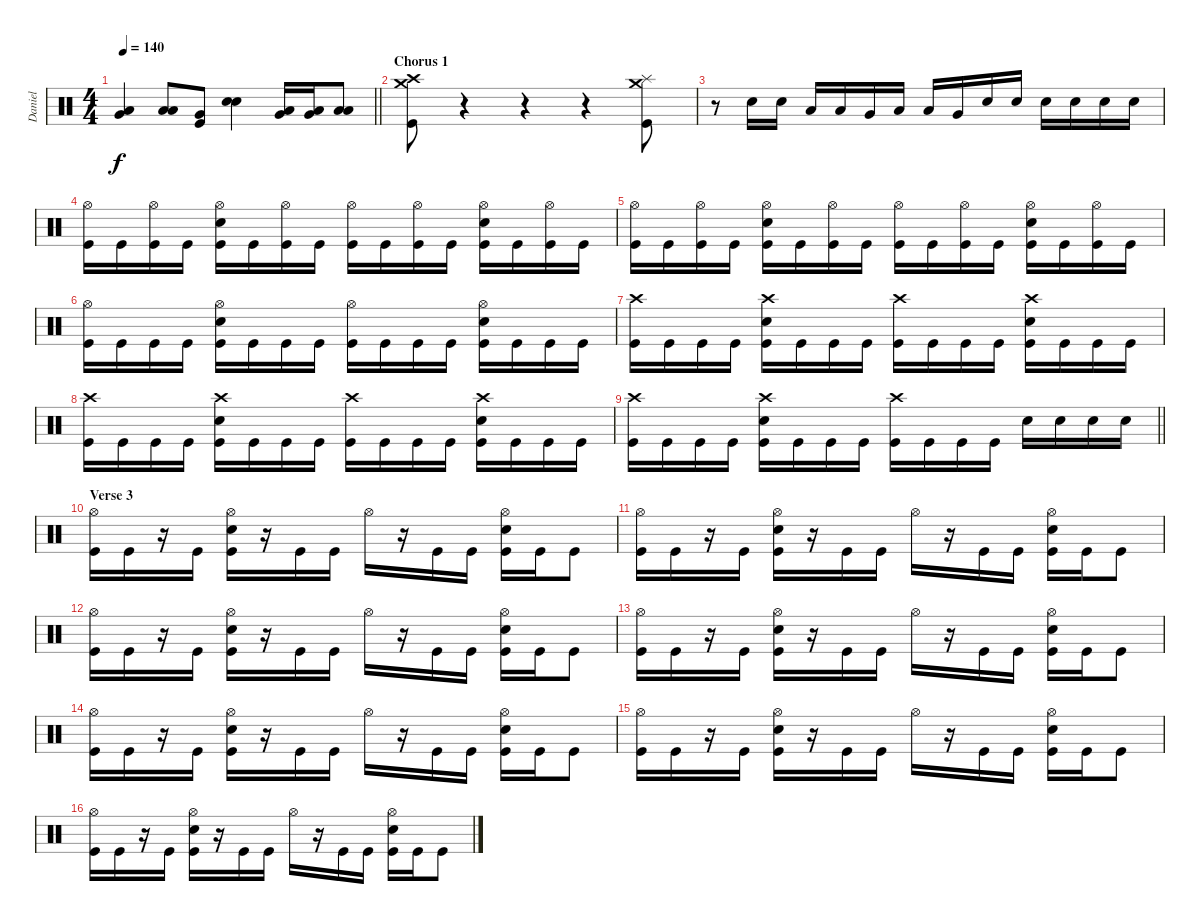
\track ("Daniel" "Daniel") {instrument percussion}
\staff {score}
\articulation defaults
\ts (4 4)
\tempo 140
\clef neutral
\barLineRight lightlight
\ks c
("Very Low Tom (hit)" "Low Floor Tom (hit)").4{dy f} ("Low Tom (hit)" "Low Tom (hit)").8 ("Kick (hit)" "Very Low Tom (hit)").8 ("Electric Snare (hit)" "Electric Snare (hit)").4 ("Low Tom (hit)" "Very Low Tom (hit)").16 ("Low Tom (hit)" "Very Low Tom (hit)").16 ("Low Tom (hit)" "Low Tom (hit)").8 |
\section ("" "Chorus 1")
("Crash medium (hit)" "Crash high (hit)" "Kick (hit)").8{volume 16} r.4 r.4 r.4 ("Crash medium (hit)" "Splash (hit)" "Kick (hit)").8 |
r.8 "Electric Snare (hit)".16 "Electric Snare (hit)".16 "Low Tom (hit)".16 "Low Tom (hit)".16 "Very Low Tom (hit)".16 "Low Floor Tom (hit)".16 "Low Tom (hit)".16 "Very Low Tom (hit)".16 "Electric Snare (hit)".16 "Electric Snare (hit)".16 "Electric Snare (hit)".16 "Electric Snare (hit)".16 "Electric Snare (hit)".16 "Electric Snare (hit)".16 |
("Hi-Hat (open)" "Kick (hit)").16 "Kick (hit)".16 ("Hi-Hat (open)" "Kick (hit)").16 "Kick (hit)".16 ("Hi-Hat (open)" "Electric Snare (hit)" "Kick (hit)").16 "Kick (hit)".16 ("Hi-Hat (open)" "Kick (hit)").16 "Kick (hit)".16 ("Hi-Hat (open)" "Kick (hit)").16 "Kick (hit)".16 ("Hi-Hat (open)" "Kick (hit)").16 "Kick (hit)".16 ("Hi-Hat (open)" "Electric Snare (hit)" "Kick (hit)").16 "Kick (hit)".16 ("Hi-Hat (open)" "Kick (hit)").16 "Kick (hit)".16 |
("Hi-Hat (open)" "Kick (hit)").16 "Kick (hit)".16 ("Hi-Hat (open)" "Kick (hit)").16 "Kick (hit)".16 ("Hi-Hat (open)" "Electric Snare (hit)" "Kick (hit)").16 "Kick (hit)".16 ("Hi-Hat (open)" "Kick (hit)").16 "Kick (hit)".16 ("Hi-Hat (open)" "Kick (hit)").16 "Kick (hit)".16 ("Hi-Hat (open)" "Kick (hit)").16 "Kick (hit)".16 ("Hi-Hat (open)" "Electric Snare (hit)" "Kick (hit)").16 "Kick (hit)".16 ("Hi-Hat (open)" "Kick (hit)").16 "Kick (hit)".16 |
("Hi-Hat (open)" "Kick (hit)").16 "Kick (hit)".16 "Kick (hit)".16 "Kick (hit)".16 ("Hi-Hat (open)" "Electric Snare (hit)" "Kick (hit)").16 "Kick (hit)".16 "Kick (hit)".16 "Kick (hit)".16 ("Hi-Hat (open)" "Kick (hit)").16 "Kick (hit)".16 "Kick (hit)".16 "Kick (hit)".16 ("Hi-Hat (open)" "Electric Snare (hit)" "Kick (hit)").16 "Kick (hit)".16 "Kick (hit)".16 "Kick (hit)".16 |
("Crash high (hit)" "Kick (hit)").16 "Kick (hit)".16 "Kick (hit)".16 "Kick (hit)".16 ("Crash high (hit)" "Electric Snare (hit)" "Kick (hit)").16 "Kick (hit)".16 "Kick (hit)".16 "Kick (hit)".16 ("Crash high (hit)" "Kick (hit)").16 "Kick (hit)".16 "Kick (hit)".16 "Kick (hit)".16 ("Crash high (hit)" "Electric Snare (hit)" "Kick (hit)").16 "Kick (hit)".16 "Kick (hit)".16 "Kick (hit)".16 |
("Crash high (hit)" "Kick (hit)").16 "Kick (hit)".16 "Kick (hit)".16 "Kick (hit)".16 ("Crash high (hit)" "Electric Snare (hit)" "Kick (hit)").16 "Kick (hit)".16 "Kick (hit)".16 "Kick (hit)".16 ("Crash high (hit)" "Kick (hit)").16 "Kick (hit)".16 "Kick (hit)".16 "Kick (hit)".16 ("Crash high (hit)" "Electric Snare (hit)" "Kick (hit)").16 "Kick (hit)".16 "Kick (hit)".16 "Kick (hit)".16 |
\barLineRight lightlight
("Crash high (hit)" "Kick (hit)").16 "Kick (hit)".16 "Kick (hit)".16 "Kick (hit)".16 ("Crash high (hit)" "Electric Snare (hit)" "Kick (hit)").16 "Kick (hit)".16 "Kick (hit)".16 "Kick (hit)".16 ("Crash high (hit)" "Kick (hit)").16 "Kick (hit)".16 "Kick (hit)".16 "Kick (hit)".16 "Electric Snare (hit)".16 "Electric Snare (hit)".16 "Electric Snare (hit)".16 "Electric Snare (hit)".16 |
\section ("" "Verse 3")
("Hi-Hat (open)" "Kick (hit)").16 "Kick (hit)".16 r.16 "Kick (hit)".16 ("Hi-Hat (open)" "Electric Snare (hit)" "Kick (hit)").16 r.16 "Kick (hit)".16 "Kick (hit)".16 "Hi-Hat (open)".16 r.16 "Kick (hit)".16 "Kick (hit)".16 ("Hi-Hat (open)" "Electric Snare (hit)" "Kick (hit)").16 "Kick (hit)".16 "Kick (hit)".8 |
("Hi-Hat (open)" "Kick (hit)").16 "Kick (hit)".16 r.16 "Kick (hit)".16 ("Hi-Hat (open)" "Electric Snare (hit)" "Kick (hit)").16 r.16 "Kick (hit)".16 "Kick (hit)".16 "Hi-Hat (open)".16 r.16 "Kick (hit)".16 "Kick (hit)".16 ("Hi-Hat (open)" "Electric Snare (hit)" "Kick (hit)").16 "Kick (hit)".16 "Kick (hit)".8 |
("Hi-Hat (open)" "Kick (hit)").16 "Kick (hit)".16 r.16 "Kick (hit)".16 ("Hi-Hat (open)" "Electric Snare (hit)" "Kick (hit)").16 r.16 "Kick (hit)".16 "Kick (hit)".16 "Hi-Hat (open)".16 r.16 "Kick (hit)".16 "Kick (hit)".16 ("Hi-Hat (open)" "Electric Snare (hit)" "Kick (hit)").16 "Kick (hit)".16 "Kick (hit)".8 |
("Hi-Hat (open)" "Kick (hit)").16 "Kick (hit)".16 r.16 "Kick (hit)".16 ("Hi-Hat (open)" "Electric Snare (hit)" "Kick (hit)").16 r.16 "Kick (hit)".16 "Kick (hit)".16 "Hi-Hat (open)".16 r.16 "Kick (hit)".16 "Kick (hit)".16 ("Hi-Hat (open)" "Electric Snare (hit)" "Kick (hit)").16 "Kick (hit)".16 "Kick (hit)".8 |
("Hi-Hat (open)" "Kick (hit)").16 "Kick (hit)".16 r.16 "Kick (hit)".16 ("Hi-Hat (open)" "Electric Snare (hit)" "Kick (hit)").16 r.16 "Kick (hit)".16 "Kick (hit)".16 "Hi-Hat (open)".16 r.16 "Kick (hit)".16 "Kick (hit)".16 ("Hi-Hat (open)" "Electric Snare (hit)" "Kick (hit)").16 "Kick (hit)".16 "Kick (hit)".8 |
("Hi-Hat (open)" "Kick (hit)").16 "Kick (hit)".16 r.16 "Kick (hit)".16 ("Hi-Hat (open)" "Electric Snare (hit)" "Kick (hit)").16 r.16 "Kick (hit)".16 "Kick (hit)".16 "Hi-Hat (open)".16 r.16 "Kick (hit)".16 "Kick (hit)".16 ("Hi-Hat (open)" "Electric Snare (hit)" "Kick (hit)").16 "Kick (hit)".16 "Kick (hit)".8 |
("Hi-Hat (open)" "Kick (hit)").16 "Kick (hit)".16 r.16 "Kick (hit)".16 ("Hi-Hat (open)" "Electric Snare (hit)" "Kick (hit)").16 r.16 "Kick (hit)".16 "Kick (hit)".16 "Hi-Hat (open)".16 r.16 "Kick (hit)".16 "Kick (hit)".16 ("Hi-Hat (open)" "Electric Snare (hit)" "Kick (hit)").16 "Kick (hit)".16 "Kick (hit)".8
